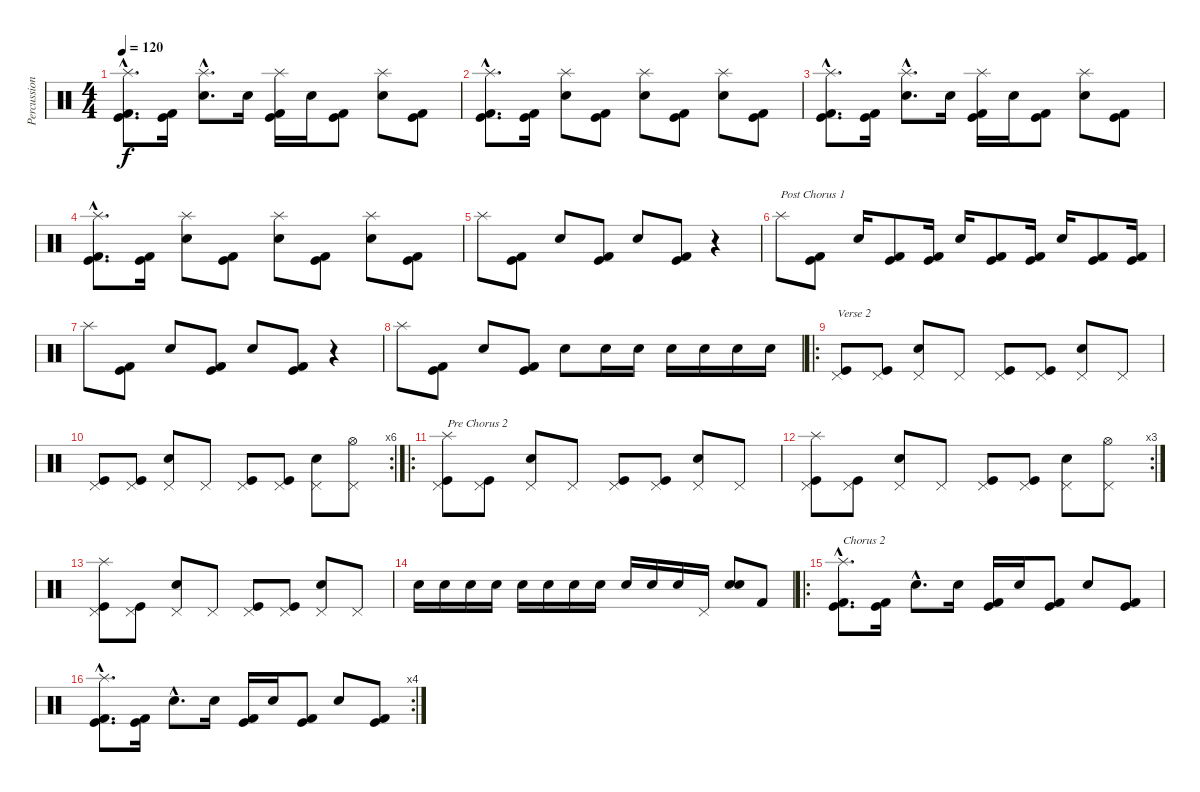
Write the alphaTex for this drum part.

\track ("Percussion" "Percussion") {instrument percussion}
\staff {score}
\articulation defaults
\ts (4 4)
\tempo 120
\clef neutral
\ks c
("Splash (hit)"{hac} "Kick (hit)"{hac} "Kick (hit) 2"{hac}).8{d dy f} ("Kick (hit)" "Kick (hit) 2").16 ("Splash (hit)"{hac} "Snare (hit) 2"{hac}).8{d} "Snare (hit) 2".16 ("Splash (hit)" "Kick (hit)" "Kick (hit) 2").16 "Snare (hit) 2".16 ("Kick (hit)" "Kick (hit) 2").8 ("Splash (hit)" "Snare (hit) 2").8 ("Kick (hit)" "Kick (hit) 2").8 |
("Splash (hit)"{hac} "Kick (hit)"{hac} "Kick (hit) 2"{hac}).8{d} ("Kick (hit)" "Kick (hit) 2").16 ("Splash (hit)" "Snare (hit) 2").8 ("Kick (hit)" "Kick (hit) 2").8 ("Splash (hit)" "Snare (hit) 2").8 ("Kick (hit)" "Kick (hit) 2").8 ("Splash (hit)" "Snare (hit) 2").8 ("Kick (hit)" "Kick (hit) 2").8 |
("Splash (hit)"{hac} "Kick (hit)"{hac} "Kick (hit) 2"{hac}).8{d} ("Kick (hit)" "Kick (hit) 2").16 ("Splash (hit)"{hac} "Snare (hit) 2"{hac}).8{d} "Snare (hit) 2".16 ("Splash (hit)" "Kick (hit)" "Kick (hit) 2").16 "Snare (hit) 2".16 ("Kick (hit)" "Kick (hit) 2").8 ("Splash (hit)" "Snare (hit) 2").8 ("Kick (hit)" "Kick (hit) 2").8 |
("Splash (hit)"{hac} "Kick (hit)"{hac} "Kick (hit) 2"{hac}).8{d} ("Kick (hit)" "Kick (hit) 2").16 ("Splash (hit)" "Snare (hit) 2").8 ("Kick (hit)" "Kick (hit) 2").8 ("Splash (hit)" "Snare (hit) 2").8 ("Kick (hit)" "Kick (hit) 2").8 ("Splash (hit)" "Snare (hit) 2").8 ("Kick (hit)" "Kick (hit) 2").8 |
"Splash (hit)".8 ("Kick (hit)" "Kick (hit) 2").8 "Snare (hit) 2".8 ("Kick (hit)" "Kick (hit) 2").8 "Snare (hit) 2".8 ("Kick (hit)" "Kick (hit) 2").8 r.4 |
"Splash (hit)".8{txt "Post Chorus 1"} ("Kick (hit)" "Kick (hit) 2").8 "Snare (hit) 2".16 ("Kick (hit)" "Kick (hit) 2").8 ("Kick (hit)" "Kick (hit) 2").16 "Snare (hit) 2".16 ("Kick (hit)" "Kick (hit) 2").8 ("Kick (hit)" "Kick (hit) 2").16 "Snare (hit) 2".16 ("Kick (hit)" "Kick (hit) 2").8 ("Kick (hit)" "Kick (hit) 2").16 |
"Splash (hit)".8 ("Kick (hit)" "Kick (hit) 2").8 "Snare (hit) 2".8 ("Kick (hit)" "Kick (hit) 2").8 "Snare (hit) 2".8 ("Kick (hit)" "Kick (hit) 2").8 r.4 |
"Splash (hit)".8 ("Kick (hit)" "Kick (hit) 2").8 "Snare (hit) 2".8 ("Kick (hit)" "Kick (hit) 2").8 "Snare (hit) 2".8 "Snare (hit) 2".16 "Snare (hit) 2".16 "Snare (hit) 2".16 "Snare (hit) 2".16 "Snare (hit) 2".16 "Snare (hit) 2".16 |
\ro
("Pedal Hi-Hat (hit)" "Kick (hit)").8{txt "Verse 2"} ("Pedal Hi-Hat (hit)" "Kick (hit)").8 ("Pedal Hi-Hat (hit)" "Snare (hit) 2").8 "Pedal Hi-Hat (hit)".8 ("Pedal Hi-Hat (hit)" "Kick (hit)").8 ("Pedal Hi-Hat (hit)" "Kick (hit)").8 ("Pedal Hi-Hat (hit)" "Snare (hit) 2").8 "Pedal Hi-Hat (hit)".8 |
\rc 6
("Pedal Hi-Hat (hit)" "Kick (hit)").8 ("Pedal Hi-Hat (hit)" "Kick (hit)").8 ("Pedal Hi-Hat (hit)" "Snare (hit) 2").8 "Pedal Hi-Hat (hit)".8 ("Pedal Hi-Hat (hit)" "Kick (hit)").8 ("Pedal Hi-Hat (hit)" "Kick (hit)").8 ("Pedal Hi-Hat (hit)" "Snare (hit) 2").8 ("Pedal Hi-Hat (hit)" "Hi-Hat (open)").8 |
\ro
("Splash (hit)" "Pedal Hi-Hat (hit)" "Kick (hit)").8{txt "Pre Chorus 2"} ("Pedal Hi-Hat (hit)" "Kick (hit)").8 ("Pedal Hi-Hat (hit)" "Snare (hit) 2").8 "Pedal Hi-Hat (hit)".8 ("Pedal Hi-Hat (hit)" "Kick (hit)").8 ("Pedal Hi-Hat (hit)" "Kick (hit)").8 ("Pedal Hi-Hat (hit)" "Snare (hit) 2").8 "Pedal Hi-Hat (hit)".8 |
\rc 3
("Splash (hit)" "Pedal Hi-Hat (hit)" "Kick (hit)").8 ("Pedal Hi-Hat (hit)" "Kick (hit)").8 ("Pedal Hi-Hat (hit)" "Snare (hit) 2").8 "Pedal Hi-Hat (hit)".8 ("Pedal Hi-Hat (hit)" "Kick (hit)").8 ("Pedal Hi-Hat (hit)" "Kick (hit)").8 ("Pedal Hi-Hat (hit)" "Snare (hit) 2").8 ("Pedal Hi-Hat (hit)" "Hi-Hat (open)").8 |
("Splash (hit)" "Pedal Hi-Hat (hit)" "Kick (hit)").8 ("Pedal Hi-Hat (hit)" "Kick (hit)").8 ("Pedal Hi-Hat (hit)" "Snare (hit) 2").8 "Pedal Hi-Hat (hit)".8 ("Pedal Hi-Hat (hit)" "Kick (hit)").8 ("Pedal Hi-Hat (hit)" "Kick (hit)").8 ("Pedal Hi-Hat (hit)" "Snare (hit) 2").8 "Pedal Hi-Hat (hit)".8 |
"Snare (hit) 2".16 "Snare (hit) 2".16 "Snare (hit) 2".16 "Snare (hit) 2".16 "Snare (hit) 2".16 "Snare (hit) 2".16 "Snare (hit) 2".16 "Snare (hit) 2".16 "Snare (hit) 2".16 "Snare (hit) 2".16 "Snare (hit) 2".16 "Pedal Hi-Hat (hit)".16 ("Electric Snare (hit)" "Snare (hit) 2").8 "Kick (hit) 2".8 |
\ro
("Splash (hit)"{hac} "Kick (hit)"{hac} "Kick (hit) 2"{hac}).8{d txt "Chorus 2"} ("Kick (hit)" "Kick (hit) 2").16 "Snare (hit) 2"{hac}.8{d} "Snare (hit) 2".16 ("Kick (hit)" "Kick (hit) 2").16 "Snare (hit) 2".16 ("Kick (hit)" "Kick (hit) 2").8 "Snare (hit) 2".8 ("Kick (hit)" "Kick (hit) 2").8 |
\rc 4
("Splash (hit)"{hac} "Kick (hit)"{hac} "Kick (hit) 2"{hac}).8{d} ("Kick (hit)" "Kick (hit) 2").16 "Snare (hit) 2"{hac}.8{d} "Snare (hit) 2".16 ("Kick (hit)" "Kick (hit) 2").16 "Snare (hit) 2".16 ("Kick (hit)" "Kick (hit) 2").8 "Snare (hit) 2".8 ("Kick (hit)" "Kick (hit) 2").8
